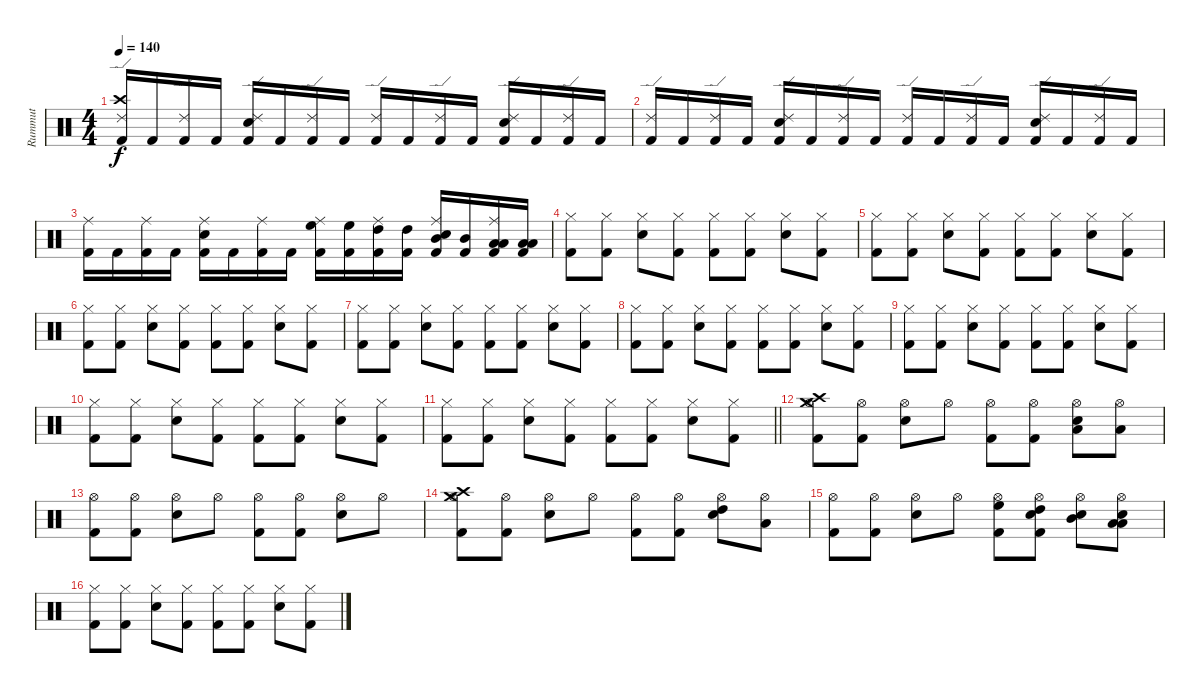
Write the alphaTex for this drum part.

\track ("Rummut" "Rummut") {instrument percussion}
\staff {score}
\articulation defaults
\ts (4 4)
\tempo 140
\clef neutral
\ks c
("Kick (hit) 2" "Crash high (hit)" "Ride (edge) 2").16{dy f} "Kick (hit) 2".16 ("Kick (hit) 2" "Ride (edge) 2").16 "Kick (hit) 2".16 ("Kick (hit) 2" "Snare (hit) 2" "Ride (edge) 2").16 "Kick (hit) 2".16 ("Kick (hit) 2" "Ride (edge) 2").16 "Kick (hit) 2".16 ("Kick (hit) 2" "Ride (edge) 2").16 "Kick (hit) 2".16 ("Kick (hit) 2" "Ride (edge) 2").16 "Kick (hit) 2".16 ("Kick (hit) 2" "Snare (hit) 2" "Ride (edge) 2").16 "Kick (hit) 2".16 ("Kick (hit) 2" "Ride (edge) 2").16 "Kick (hit) 2".16 |
("Kick (hit) 2" "Ride (edge) 2").16 "Kick (hit) 2".16 ("Kick (hit) 2" "Ride (edge) 2").16 "Kick (hit) 2".16 ("Kick (hit) 2" "Snare (hit) 2" "Ride (edge) 2").16 "Kick (hit) 2".16 ("Kick (hit) 2" "Ride (edge) 2").16 "Kick (hit) 2".16 ("Kick (hit) 2" "Ride (edge) 2").16 "Kick (hit) 2".16 ("Kick (hit) 2" "Ride (edge) 2").16 "Kick (hit) 2".16 ("Kick (hit) 2" "Snare (hit) 2" "Ride (edge) 2").16 "Kick (hit) 2".16 ("Kick (hit) 2" "Ride (edge) 2").16 "Kick (hit) 2".16 |
("Kick (hit) 2" "Ride (middle)").16 "Kick (hit) 2".16 ("Kick (hit) 2" "Ride (middle)").16 "Kick (hit) 2".16 ("Kick (hit) 2" "Snare (hit) 2" "Ride (middle)").16 "Kick (hit) 2".16 ("Kick (hit) 2" "Ride (middle)").16 "Kick (hit) 2".16 ("Kick (hit) 2" "Ride (middle)" "High Floor Tom (hit)").16 ("Kick (hit) 2" "High Floor Tom (hit)").16 ("Kick (hit) 2" "Ride (middle)" "High Tom (hit)").16 ("Kick (hit) 2" "High Tom (hit)").16 ("Kick (hit) 2" "Snare (hit) 2" "Ride (middle)" "Mid Tom (hit)").16 ("Kick (hit) 2" "Mid Tom (hit)").16 ("Kick (hit) 2" "Ride (middle)" "Low Tom (hit)" "Low Floor Tom (hit)").16 ("Kick (hit) 2" "Low Tom (hit)" "Low Floor Tom (hit)").16 |
("Kick (hit) 2" "Hi-Hat (closed)").8 ("Kick (hit) 2" "Hi-Hat (closed)").8 ("Snare (hit) 2" "Hi-Hat (closed)").8 ("Kick (hit) 2" "Hi-Hat (closed)").8 ("Kick (hit) 2" "Hi-Hat (closed)").8 ("Kick (hit) 2" "Hi-Hat (closed)").8 ("Snare (hit) 2" "Hi-Hat (closed)").8 ("Kick (hit) 2" "Hi-Hat (closed)").8 |
("Kick (hit) 2" "Hi-Hat (closed)").8 ("Kick (hit) 2" "Hi-Hat (closed)").8 ("Snare (hit) 2" "Hi-Hat (closed)").8 ("Kick (hit) 2" "Hi-Hat (closed)").8 ("Kick (hit) 2" "Hi-Hat (closed)").8 ("Kick (hit) 2" "Hi-Hat (closed)").8 ("Snare (hit) 2" "Hi-Hat (closed)").8 ("Kick (hit) 2" "Hi-Hat (closed)").8 |
("Kick (hit) 2" "Hi-Hat (closed)").8 ("Kick (hit) 2" "Hi-Hat (closed)").8 ("Snare (hit) 2" "Hi-Hat (closed)").8 ("Kick (hit) 2" "Hi-Hat (closed)").8 ("Kick (hit) 2" "Hi-Hat (closed)").8 ("Kick (hit) 2" "Hi-Hat (closed)").8 ("Snare (hit) 2" "Hi-Hat (closed)").8 ("Kick (hit) 2" "Hi-Hat (closed)").8 |
("Kick (hit) 2" "Hi-Hat (closed)").8 ("Kick (hit) 2" "Hi-Hat (closed)").8 ("Snare (hit) 2" "Hi-Hat (closed)").8 ("Kick (hit) 2" "Hi-Hat (closed)").8 ("Kick (hit) 2" "Hi-Hat (closed)").8 ("Kick (hit) 2" "Hi-Hat (closed)").8 ("Snare (hit) 2" "Hi-Hat (closed)").8 ("Kick (hit) 2" "Hi-Hat (closed)").8 |
("Kick (hit) 2" "Hi-Hat (closed)").8 ("Kick (hit) 2" "Hi-Hat (closed)").8 ("Snare (hit) 2" "Hi-Hat (closed)").8 ("Kick (hit) 2" "Hi-Hat (closed)").8 ("Kick (hit) 2" "Hi-Hat (closed)").8 ("Kick (hit) 2" "Hi-Hat (closed)").8 ("Snare (hit) 2" "Hi-Hat (closed)").8 ("Kick (hit) 2" "Hi-Hat (closed)").8 |
("Kick (hit) 2" "Hi-Hat (closed)").8 ("Kick (hit) 2" "Hi-Hat (closed)").8 ("Snare (hit) 2" "Hi-Hat (closed)").8 ("Kick (hit) 2" "Hi-Hat (closed)").8 ("Kick (hit) 2" "Hi-Hat (closed)").8 ("Kick (hit) 2" "Hi-Hat (closed)").8 ("Snare (hit) 2" "Hi-Hat (closed)").8 ("Kick (hit) 2" "Hi-Hat (closed)").8 |
("Kick (hit) 2" "Hi-Hat (closed)").8 ("Kick (hit) 2" "Hi-Hat (closed)").8 ("Snare (hit) 2" "Hi-Hat (closed)").8 ("Kick (hit) 2" "Hi-Hat (closed)").8 ("Kick (hit) 2" "Hi-Hat (closed)").8 ("Kick (hit) 2" "Hi-Hat (closed)").8 ("Snare (hit) 2" "Hi-Hat (closed)").8 ("Kick (hit) 2" "Hi-Hat (closed)").8 |
\barLineRight lightlight
("Kick (hit) 2" "Hi-Hat (closed)").8 ("Kick (hit) 2" "Hi-Hat (closed)").8 ("Snare (hit) 2" "Hi-Hat (closed)").8 ("Kick (hit) 2" "Hi-Hat (closed)").8 ("Kick (hit) 2" "Hi-Hat (closed)").8 ("Kick (hit) 2" "Hi-Hat (closed)").8 ("Snare (hit) 2" "Hi-Hat (closed)").8 ("Kick (hit) 2" "Hi-Hat (closed)").8 |
("Kick (hit) 2" "Hi-Hat (open)" "Crash high (hit)" "Crash medium (hit)").8 ("Kick (hit) 2" "Hi-Hat (open)").8 ("Snare (hit) 2" "Hi-Hat (open)").8 "Hi-Hat (open)".8 ("Kick (hit) 2" "Hi-Hat (open)").8 ("Kick (hit) 2" "Hi-Hat (open)").8 ("Snare (hit) 2" "Hi-Hat (open)" "Low Tom (hit)").8 ("Hi-Hat (open)" "Low Tom (hit)").8 |
("Kick (hit) 2" "Hi-Hat (open)").8 ("Kick (hit) 2" "Hi-Hat (open)").8 ("Snare (hit) 2" "Hi-Hat (open)").8 "Hi-Hat (open)".8 ("Kick (hit) 2" "Hi-Hat (open)").8 ("Kick (hit) 2" "Hi-Hat (open)").8 ("Snare (hit) 2" "Hi-Hat (open)").8 "Hi-Hat (open)".8 |
("Kick (hit) 2" "Hi-Hat (open)" "Crash high (hit)" "Crash medium (hit)").8 ("Kick (hit) 2" "Hi-Hat (open)").8 ("Snare (hit) 2" "Hi-Hat (open)").8 "Hi-Hat (open)".8 ("Kick (hit) 2" "Hi-Hat (open)").8 ("Kick (hit) 2" "Hi-Hat (open)").8 ("Snare (hit) 2" "Hi-Hat (open)" "High Tom (hit)").8 ("Hi-Hat (open)" "Low Tom (hit)").8 |
("Kick (hit) 2" "Hi-Hat (open)").8 ("Kick (hit) 2" "Hi-Hat (open)").8 ("Snare (hit) 2" "Hi-Hat (open)").8 "Hi-Hat (open)".8 ("Kick (hit) 2" "Hi-Hat (open)" "High Floor Tom (hit)").8 ("Kick (hit) 2" "Hi-Hat (open)" "Snare (hit) 2" "High Tom (hit)").8 ("Snare (hit) 2" "Hi-Hat (open)" "Mid Tom (hit)").8 ("Hi-Hat (open)" "Snare (hit) 2" "Low Tom (hit)" "Low Floor Tom (hit)").8 |
("Kick (hit) 2" "Hi-Hat (closed)").8 ("Kick (hit) 2" "Hi-Hat (closed)").8 ("Snare (hit) 2" "Hi-Hat (closed)").8 ("Kick (hit) 2" "Hi-Hat (closed)").8 ("Kick (hit) 2" "Hi-Hat (closed)").8 ("Kick (hit) 2" "Hi-Hat (closed)").8 ("Snare (hit) 2" "Hi-Hat (closed)").8 ("Kick (hit) 2" "Hi-Hat (closed)").8
